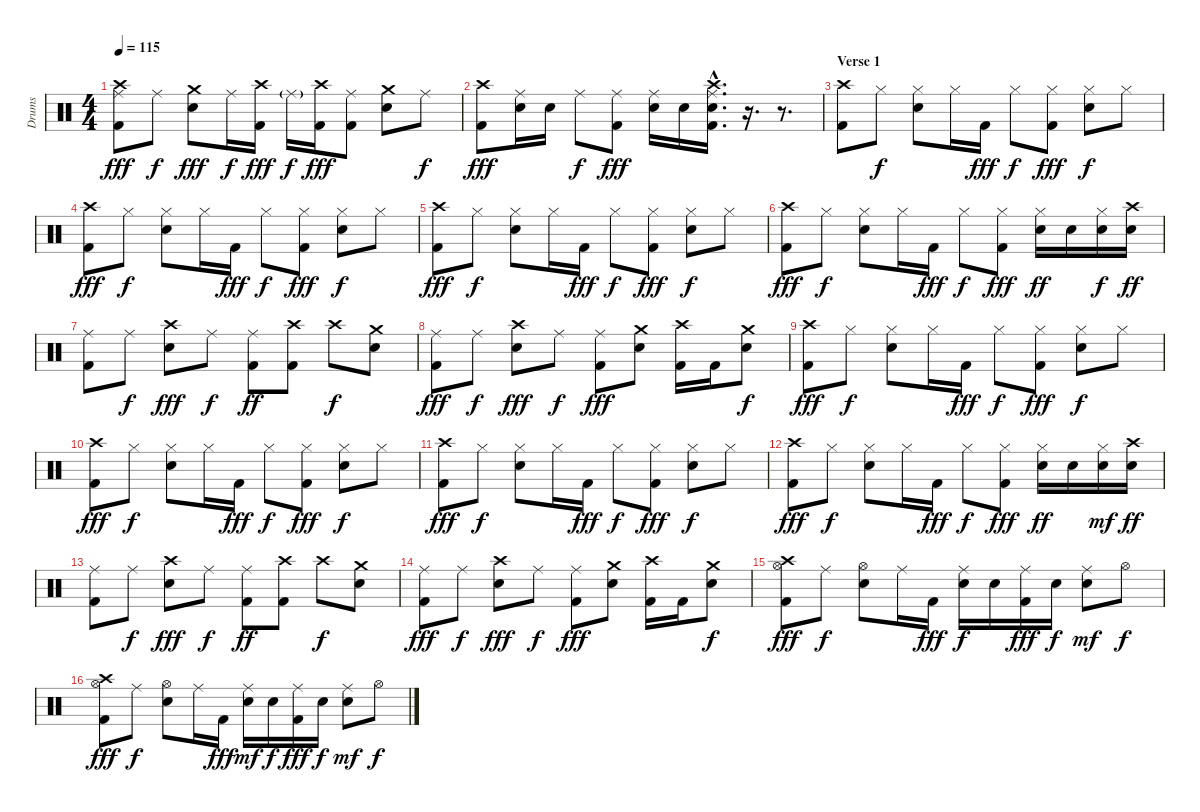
\track ("Drums" "Drums") {instrument percussion}
\staff {score}
\articulation defaults
\ts (4 4)
\tempo 115
\clef neutral
\ks c
("Ride (middle)" "Crash high (hit)" "Kick (hit) 2").8{dy fff} "Ride (middle)".8{dy f} ("Crash medium (hit)" "Electric Snare (hit)").8{dy fff} "Ride (middle)".16{dy f} ("Crash high (hit)" "Kick (hit) 2").16{dy fff} "Ride (middle)"{g}.16{dy f} ("Crash high (hit)" "Kick (hit) 2").16{dy fff} ("Ride (middle)" "Kick (hit) 2").8 ("Crash medium (hit)" "Electric Snare (hit)").8 "Ride (middle)".8{dy f} |
("Crash high (hit)" "Kick (hit) 2").8{dy fff} ("Ride (middle)" "Electric Snare (hit)").16 "Electric Snare (hit)".16 "Ride (middle)".8{dy f} ("Ride (middle)" "Kick (hit) 2").8{dy fff} ("Ride (middle)" "Electric Snare (hit)").16 "Electric Snare (hit)".16 ("Ride (middle)"{hac} "Crash high (hit)"{hac} "Snare (hit) 2"{hac} "Kick (hit) 2"{hac}).16{d} r.16{d} r.8{d} |
\section ("" "Verse 1")
("Crash high (hit)" "Kick (hit) 2").8 "Hi-Hat (closed)".8{dy f} ("Hi-Hat (closed)" "Electric Snare (hit)").8 "Hi-Hat (closed)".16 "Kick (hit) 2".16{dy fff} "Hi-Hat (closed)".8{dy f} ("Hi-Hat (closed)" "Kick (hit) 2").8{dy fff} ("Hi-Hat (closed)" "Electric Snare (hit)").8{dy f} "Hi-Hat (closed)".8 |
("Crash high (hit)" "Kick (hit) 2").8{dy fff} "Hi-Hat (closed)".8{dy f} ("Hi-Hat (closed)" "Electric Snare (hit)").8 "Hi-Hat (closed)".16 "Kick (hit) 2".16{dy fff} "Hi-Hat (closed)".8{dy f} ("Hi-Hat (closed)" "Kick (hit) 2").8{dy fff} ("Hi-Hat (closed)" "Electric Snare (hit)").8{dy f} "Hi-Hat (closed)".8 |
("Crash high (hit)" "Kick (hit) 2").8{dy fff} "Hi-Hat (closed)".8{dy f} ("Hi-Hat (closed)" "Electric Snare (hit)").8 "Hi-Hat (closed)".16 "Kick (hit) 2".16{dy fff} "Hi-Hat (closed)".8{dy f} ("Hi-Hat (closed)" "Kick (hit) 2").8{dy fff} ("Hi-Hat (closed)" "Electric Snare (hit)").8{dy f} "Hi-Hat (closed)".8 |
("Crash high (hit)" "Kick (hit) 2").8{dy fff} "Hi-Hat (closed)".8{dy f} ("Hi-Hat (closed)" "Electric Snare (hit)").8 "Hi-Hat (closed)".16 "Kick (hit) 2".16{dy fff} "Hi-Hat (closed)".8{dy f} ("Hi-Hat (closed)" "Kick (hit) 2").8{dy fff} ("Hi-Hat (closed)" "Electric Snare (hit)").16{dy ff} "Electric Snare (hit)".16 ("Hi-Hat (closed)" "Snare (hit) 2").16{dy f} ("Crash high (hit)" "Electric Snare (hit)").16{dy ff} |
("Ride (middle)" "Kick (hit) 2").8 "Ride (middle)".8{dy f} ("Crash high (hit)" "Electric Snare (hit)").8{dy fff} "Ride (middle)".8{dy f} ("Ride (middle)" "Kick (hit) 2").8{dy ff} ("Crash high (hit)" "Kick (hit) 2").8 "Crash high (hit)".8{dy f} ("Crash medium (hit)" "Snare (hit) 2").8 |
("Ride (middle)" "Kick (hit) 2").8{dy fff} "Ride (middle)".8{dy f} ("Crash high (hit)" "Electric Snare (hit)").8{dy fff} "Ride (middle)".8{dy f} ("Ride (middle)" "Kick (hit) 2").8{dy fff} ("Crash medium (hit)" "Electric Snare (hit)").8 ("Crash high (hit)" "Kick (hit) 2").16 "Kick (hit) 2".16 ("Crash medium (hit)" "Snare (hit) 2").8{dy f} |
("Crash high (hit)" "Kick (hit) 2").8{dy fff} "Hi-Hat (closed)".8{dy f} ("Hi-Hat (closed)" "Electric Snare (hit)").8 "Hi-Hat (closed)".16 "Kick (hit) 2".16{dy fff} "Hi-Hat (closed)".8{dy f} ("Hi-Hat (closed)" "Kick (hit) 2").8{dy fff} ("Hi-Hat (closed)" "Electric Snare (hit)").8{dy f} "Hi-Hat (closed)".8 |
("Crash high (hit)" "Kick (hit) 2").8{dy fff} "Hi-Hat (closed)".8{dy f} ("Hi-Hat (closed)" "Electric Snare (hit)").8 "Hi-Hat (closed)".16 "Kick (hit) 2".16{dy fff} "Hi-Hat (closed)".8{dy f} ("Hi-Hat (closed)" "Kick (hit) 2").8{dy fff} ("Hi-Hat (closed)" "Electric Snare (hit)").8{dy f} "Hi-Hat (closed)".8 |
("Crash high (hit)" "Kick (hit) 2").8{dy fff} "Hi-Hat (closed)".8{dy f} ("Hi-Hat (closed)" "Electric Snare (hit)").8 "Hi-Hat (closed)".16 "Kick (hit) 2".16{dy fff} "Hi-Hat (closed)".8{dy f} ("Hi-Hat (closed)" "Kick (hit) 2").8{dy fff} ("Hi-Hat (closed)" "Electric Snare (hit)").8{dy f} "Hi-Hat (closed)".8 |
("Crash high (hit)" "Kick (hit) 2").8{dy fff} "Hi-Hat (closed)".8{dy f} ("Hi-Hat (closed)" "Electric Snare (hit)").8 "Hi-Hat (closed)".16 "Kick (hit) 2".16{dy fff} "Hi-Hat (closed)".8{dy f} ("Hi-Hat (closed)" "Kick (hit) 2").8{dy fff} ("Hi-Hat (closed)" "Electric Snare (hit)").16{dy ff} "Electric Snare (hit)".16 ("Hi-Hat (closed)" "Snare (hit) 2").16{dy mf} ("Crash high (hit)" "Electric Snare (hit)").16{dy ff} |
("Ride (middle)" "Kick (hit) 2").8 "Ride (middle)".8{dy f} ("Crash high (hit)" "Electric Snare (hit)").8{dy fff} "Ride (middle)".8{dy f} ("Ride (middle)" "Kick (hit) 2").8{dy ff} ("Crash high (hit)" "Kick (hit) 2").8 "Crash high (hit)".8{dy f} ("Crash medium (hit)" "Snare (hit) 2").8 |
("Ride (middle)" "Kick (hit) 2").8{dy fff} "Ride (middle)".8{dy f} ("Crash high (hit)" "Electric Snare (hit)").8{dy fff} "Ride (middle)".8{dy f} ("Ride (middle)" "Kick (hit) 2").8{dy fff} ("Crash medium (hit)" "Electric Snare (hit)").8 ("Crash high (hit)" "Kick (hit) 2").16 "Kick (hit) 2".16 ("Crash medium (hit)" "Snare (hit) 2").8{dy f} |
("Hi-Hat (open)" "Crash high (hit)" "Kick (hit) 2").8{dy fff} "Ride (middle)".8{dy f} ("Hi-Hat (open)" "Electric Snare (hit)").8 "Ride (middle)".16 "Kick (hit) 2".16{dy fff} ("Ride (middle)" "Electric Snare (hit)").16{dy f} "Electric Snare (hit)".16 ("Ride (middle)" "Kick (hit) 2").16{dy fff} "Electric Snare (hit)".16{dy f} ("Ride (middle)" "Snare (hit) 2").8{dy mf} "Hi-Hat (open)".8{dy f} |
("Hi-Hat (open)" "Crash high (hit)" "Kick (hit) 2").8{dy fff} "Ride (middle)".8{dy f} ("Hi-Hat (open)" "Electric Snare (hit)").8 "Ride (middle)".16 "Kick (hit) 2".16{dy fff} ("Ride (middle)" "Snare (hit) 2").16{dy mf} "Electric Snare (hit)".16{dy f} ("Ride (middle)" "Kick (hit) 2").16{dy fff} "Electric Snare (hit)".16{dy f} ("Ride (middle)" "Snare (hit) 2").8{dy mf} "Hi-Hat (open)".8{dy f}
